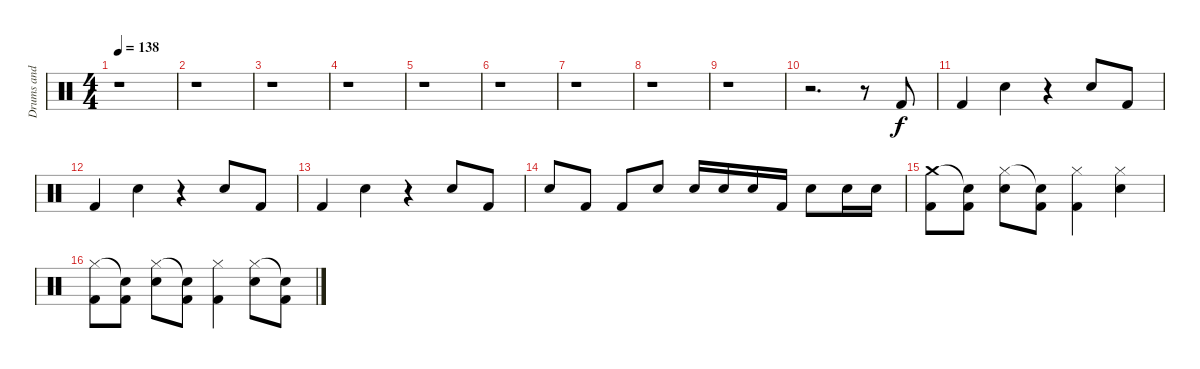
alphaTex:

\track ("Drums and Percussion" "Drums and ") {instrument percussion}
\staff {score}
\articulation defaults
\ts (4 4)
\tempo 138
\clef neutral
\ks c
r.1{dy f} |
r.1 |
r.1 |
r.1 |
r.1 |
r.1 |
r.1 |
r.1 |
r.1 |
r.2{d} r.8 "Kick (hit) 2".8 |
"Kick (hit) 2".4 "Electric Snare (hit)".4 r.4 "Electric Snare (hit)".8 "Kick (hit) 2".8 |
"Kick (hit) 2".4 "Electric Snare (hit)".4 r.4 "Electric Snare (hit)".8 "Kick (hit) 2".8 |
"Kick (hit) 2".4 "Electric Snare (hit)".4 r.4 "Electric Snare (hit)".8 "Kick (hit) 2".8 |
"Electric Snare (hit)".8 "Kick (hit) 2".8 "Kick (hit) 2".8 "Electric Snare (hit)".8 "Electric Snare (hit)".16 "Electric Snare (hit)".16 "Electric Snare (hit)".16 "Kick (hit) 2".16 "Electric Snare (hit)".8 "Electric Snare (hit)".16 "Electric Snare (hit)".16 |
("Crash medium (hit)" "Kick (hit) 2").8 ("Snare (hit)"{t} "Kick (hit) 2").8 ("Hi-Hat (closed)" "Electric Snare (hit)").8 ("Snare (hit)"{t} "Kick (hit) 2").8 ("Hi-Hat (closed)" "Kick (hit) 2").4 ("Hi-Hat (closed)" "Electric Snare (hit)").4 |
("Hi-Hat (closed)" "Kick (hit) 2").8 ("Snare (hit)"{t} "Kick (hit) 2").8 ("Hi-Hat (closed)" "Electric Snare (hit)").8 ("Snare (hit)"{t} "Kick (hit) 2").8 ("Hi-Hat (closed)" "Kick (hit) 2").4 ("Hi-Hat (closed)" "Electric Snare (hit)").8 ("Snare (hit)"{t} "Kick (hit) 2").8
